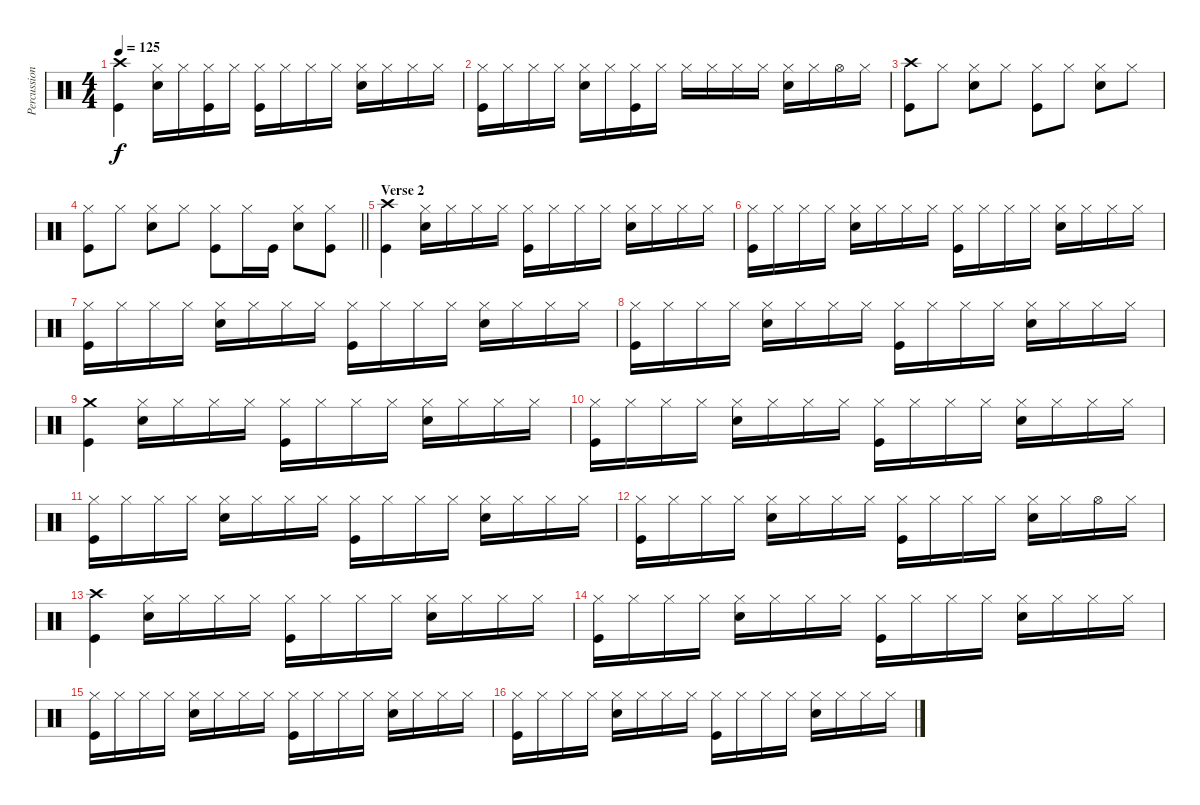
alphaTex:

\track ("Percussion" "Percussion") {instrument percussion}
\staff {score}
\articulation defaults
\ts (4 4)
\tempo 125
\clef neutral
\ks c
("Kick (hit)" "Crash high (hit)").4{dy f} ("Hi-Hat (closed)" "Snare (hit) 2").16 "Hi-Hat (closed)".16 ("Kick (hit)" "Hi-Hat (closed)").16 "Hi-Hat (closed)".16 ("Kick (hit)" "Hi-Hat (closed)").16 "Hi-Hat (closed)".16 "Hi-Hat (closed)".16 "Hi-Hat (closed)".16 ("Hi-Hat (closed)" "Snare (hit) 2").16 "Hi-Hat (closed)".16 "Hi-Hat (closed)".16 "Hi-Hat (closed)".16 |
("Kick (hit)" "Hi-Hat (closed)").16 "Hi-Hat (closed)".16 "Hi-Hat (closed)".16 "Hi-Hat (closed)".16 ("Hi-Hat (closed)" "Snare (hit) 2").16 "Hi-Hat (closed)".16 ("Kick (hit)" "Hi-Hat (closed)").16 "Hi-Hat (closed)".16 "Hi-Hat (closed)".16 "Hi-Hat (closed)".16 "Hi-Hat (closed)".16 "Hi-Hat (closed)".16 ("Hi-Hat (closed)" "Snare (hit) 2").16 "Hi-Hat (closed)".16 "Hi-Hat (open)".16 "Hi-Hat (closed)".16 |
("Kick (hit)" "Crash high (hit)").8 "Hi-Hat (closed)".8 ("Hi-Hat (closed)" "Snare (hit) 2").8 "Hi-Hat (closed)".8 ("Kick (hit)" "Hi-Hat (closed)").8 "Hi-Hat (closed)".8 ("Hi-Hat (closed)" "Snare (hit) 2").8 "Hi-Hat (closed)".8 |
\barLineRight lightlight
("Kick (hit)" "Hi-Hat (closed)").8 "Hi-Hat (closed)".8 ("Hi-Hat (closed)" "Snare (hit) 2").8 "Hi-Hat (closed)".8 ("Kick (hit)" "Hi-Hat (closed)").8 "Hi-Hat (closed)".16 "Kick (hit)".16 ("Hi-Hat (closed)" "Snare (hit) 2").8 ("Kick (hit)" "Hi-Hat (closed)").8 |
\section ("" "Verse 2")
("Kick (hit)" "Crash high (hit)").4 ("Hi-Hat (closed)" "Snare (hit) 2").16 "Hi-Hat (closed)".16 "Hi-Hat (closed)".16 "Hi-Hat (closed)".16 ("Kick (hit)" "Hi-Hat (closed)").16 "Hi-Hat (closed)".16 "Hi-Hat (closed)".16 "Hi-Hat (closed)".16 ("Hi-Hat (closed)" "Snare (hit) 2").16 "Hi-Hat (closed)".16 "Hi-Hat (closed)".16 "Hi-Hat (closed)".16 |
("Kick (hit)" "Hi-Hat (closed)").16 "Hi-Hat (closed)".16 "Hi-Hat (closed)".16 "Hi-Hat (closed)".16 ("Hi-Hat (closed)" "Snare (hit) 2").16 "Hi-Hat (closed)".16 "Hi-Hat (closed)".16 "Hi-Hat (closed)".16 ("Kick (hit)" "Hi-Hat (closed)").16 "Hi-Hat (closed)".16 "Hi-Hat (closed)".16 "Hi-Hat (closed)".16 ("Hi-Hat (closed)" "Snare (hit) 2").16 "Hi-Hat (closed)".16 "Hi-Hat (closed)".16 "Hi-Hat (closed)".16 |
("Kick (hit)" "Hi-Hat (closed)").16 "Hi-Hat (closed)".16 "Hi-Hat (closed)".16 "Hi-Hat (closed)".16 ("Hi-Hat (closed)" "Snare (hit) 2").16 "Hi-Hat (closed)".16 "Hi-Hat (closed)".16 "Hi-Hat (closed)".16 ("Kick (hit)" "Hi-Hat (closed)").16 "Hi-Hat (closed)".16 "Hi-Hat (closed)".16 "Hi-Hat (closed)".16 ("Hi-Hat (closed)" "Snare (hit) 2").16 "Hi-Hat (closed)".16 "Hi-Hat (closed)".16 "Hi-Hat (closed)".16 |
("Kick (hit)" "Hi-Hat (closed)").16 "Hi-Hat (closed)".16 "Hi-Hat (closed)".16 "Hi-Hat (closed)".16 ("Hi-Hat (closed)" "Snare (hit) 2").16 "Hi-Hat (closed)".16 "Hi-Hat (closed)".16 "Hi-Hat (closed)".16 ("Kick (hit)" "Hi-Hat (closed)").16 "Hi-Hat (closed)".16 "Hi-Hat (closed)".16 "Hi-Hat (closed)".16 ("Hi-Hat (closed)" "Snare (hit) 2").16 "Hi-Hat (closed)".16 "Hi-Hat (closed)".16 "Hi-Hat (closed)".16 |
("Kick (hit)" "Crash medium (hit)").4 ("Hi-Hat (closed)" "Snare (hit) 2").16 "Hi-Hat (closed)".16 "Hi-Hat (closed)".16 "Hi-Hat (closed)".16 ("Kick (hit)" "Hi-Hat (closed)").16 "Hi-Hat (closed)".16 "Hi-Hat (closed)".16 "Hi-Hat (closed)".16 ("Hi-Hat (closed)" "Snare (hit) 2").16 "Hi-Hat (closed)".16 "Hi-Hat (closed)".16 "Hi-Hat (closed)".16 |
("Kick (hit)" "Hi-Hat (closed)").16 "Hi-Hat (closed)".16 "Hi-Hat (closed)".16 "Hi-Hat (closed)".16 ("Hi-Hat (closed)" "Snare (hit) 2").16 "Hi-Hat (closed)".16 "Hi-Hat (closed)".16 "Hi-Hat (closed)".16 ("Kick (hit)" "Hi-Hat (closed)").16 "Hi-Hat (closed)".16 "Hi-Hat (closed)".16 "Hi-Hat (closed)".16 ("Hi-Hat (closed)" "Snare (hit) 2").16 "Hi-Hat (closed)".16 "Hi-Hat (closed)".16 "Hi-Hat (closed)".16 |
("Kick (hit)" "Hi-Hat (closed)").16 "Hi-Hat (closed)".16 "Hi-Hat (closed)".16 "Hi-Hat (closed)".16 ("Hi-Hat (closed)" "Snare (hit) 2").16 "Hi-Hat (closed)".16 "Hi-Hat (closed)".16 "Hi-Hat (closed)".16 ("Kick (hit)" "Hi-Hat (closed)").16 "Hi-Hat (closed)".16 "Hi-Hat (closed)".16 "Hi-Hat (closed)".16 ("Hi-Hat (closed)" "Snare (hit) 2").16 "Hi-Hat (closed)".16 "Hi-Hat (closed)".16 "Hi-Hat (closed)".16 |
("Kick (hit)" "Hi-Hat (closed)").16 "Hi-Hat (closed)".16 "Hi-Hat (closed)".16 "Hi-Hat (closed)".16 ("Hi-Hat (closed)" "Snare (hit) 2").16 "Hi-Hat (closed)".16 "Hi-Hat (closed)".16 "Hi-Hat (closed)".16 ("Kick (hit)" "Hi-Hat (closed)").16 "Hi-Hat (closed)".16 "Hi-Hat (closed)".16 "Hi-Hat (closed)".16 ("Hi-Hat (closed)" "Snare (hit) 2").16 "Hi-Hat (closed)".16 "Hi-Hat (open)".16 "Hi-Hat (closed)".16 |
("Kick (hit)" "Crash high (hit)").4 ("Hi-Hat (closed)" "Snare (hit) 2").16 "Hi-Hat (closed)".16 "Hi-Hat (closed)".16 "Hi-Hat (closed)".16 ("Kick (hit)" "Hi-Hat (closed)").16 "Hi-Hat (closed)".16 "Hi-Hat (closed)".16 "Hi-Hat (closed)".16 ("Hi-Hat (closed)" "Snare (hit) 2").16 "Hi-Hat (closed)".16 "Hi-Hat (closed)".16 "Hi-Hat (closed)".16 |
("Kick (hit)" "Hi-Hat (closed)").16 "Hi-Hat (closed)".16 "Hi-Hat (closed)".16 "Hi-Hat (closed)".16 ("Hi-Hat (closed)" "Snare (hit) 2").16 "Hi-Hat (closed)".16 "Hi-Hat (closed)".16 "Hi-Hat (closed)".16 ("Kick (hit)" "Hi-Hat (closed)").16 "Hi-Hat (closed)".16 "Hi-Hat (closed)".16 "Hi-Hat (closed)".16 ("Hi-Hat (closed)" "Snare (hit) 2").16 "Hi-Hat (closed)".16 "Hi-Hat (closed)".16 "Hi-Hat (closed)".16 |
("Kick (hit)" "Hi-Hat (closed)").16 "Hi-Hat (closed)".16 "Hi-Hat (closed)".16 "Hi-Hat (closed)".16 ("Hi-Hat (closed)" "Snare (hit) 2").16 "Hi-Hat (closed)".16 "Hi-Hat (closed)".16 "Hi-Hat (closed)".16 ("Kick (hit)" "Hi-Hat (closed)").16 "Hi-Hat (closed)".16 "Hi-Hat (closed)".16 "Hi-Hat (closed)".16 ("Hi-Hat (closed)" "Snare (hit) 2").16 "Hi-Hat (closed)".16 "Hi-Hat (closed)".16 "Hi-Hat (closed)".16 |
("Kick (hit)" "Hi-Hat (closed)").16 "Hi-Hat (closed)".16 "Hi-Hat (closed)".16 "Hi-Hat (closed)".16 ("Hi-Hat (closed)" "Snare (hit) 2").16 "Hi-Hat (closed)".16 "Hi-Hat (closed)".16 "Hi-Hat (closed)".16 ("Kick (hit)" "Hi-Hat (closed)").16 "Hi-Hat (closed)".16 "Hi-Hat (closed)".16 "Hi-Hat (closed)".16 ("Hi-Hat (closed)" "Snare (hit) 2").16 "Hi-Hat (closed)".16 "Hi-Hat (closed)".16 "Hi-Hat (closed)".16
